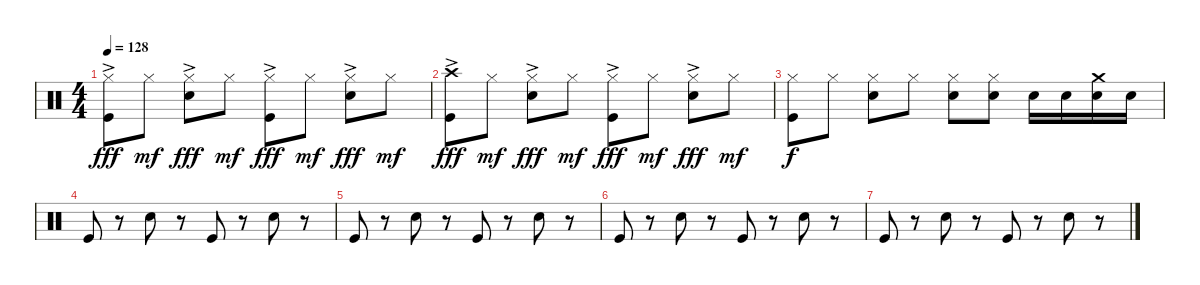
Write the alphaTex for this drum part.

\track "" {instrument percussion}
\staff {score}
\articulation defaults
\ts (4 4)
\tempo 128
\clef neutral
\ks c
("Hi-Hat (closed)"{ac} "Kick (hit)").8{dy fff} "Hi-Hat (closed)".8{dy mf} ("Hi-Hat (closed)"{ac} "Electric Snare (hit)").8{dy fff} "Hi-Hat (closed)".8{dy mf} ("Hi-Hat (closed)"{ac} "Kick (hit)").8{dy fff} "Hi-Hat (closed)".8{dy mf} ("Hi-Hat (closed)"{ac} "Electric Snare (hit)").8{dy fff} "Hi-Hat (closed)".8{dy mf} |
("Crash high (hit)"{ac} "Kick (hit)").8{dy fff} "Hi-Hat (closed)".8{dy mf} ("Hi-Hat (closed)"{ac} "Electric Snare (hit)").8{dy fff} "Hi-Hat (closed)".8{dy mf} ("Hi-Hat (closed)"{ac} "Kick (hit)").8{dy fff} "Hi-Hat (closed)".8{dy mf} ("Hi-Hat (closed)"{ac} "Electric Snare (hit)").8{dy fff} "Hi-Hat (closed)".8{dy mf} |
("Hi-Hat (closed)" "Kick (hit)").8{dy f} "Hi-Hat (closed)".8 ("Hi-Hat (closed)" "Electric Snare (hit)").8 "Hi-Hat (closed)".8 ("Hi-Hat (closed)" "Electric Snare (hit)").8 ("Hi-Hat (closed)" "Electric Snare (hit)").8 "Electric Snare (hit)".16 "Electric Snare (hit)".16 ("Crash medium (hit)" "Electric Snare (hit)").16 "Electric Snare (hit)".16 |
"Kick (hit)".8 r.8 "Snare (hit) 2".8 r.8 "Kick (hit)".8 r.8 "Snare (hit) 2".8 r.8 |
"Kick (hit)".8 r.8 "Snare (hit) 2".8 r.8 "Kick (hit)".8 r.8 "Snare (hit) 2".8 r.8 |
"Kick (hit)".8 r.8 "Snare (hit) 2".8 r.8 "Kick (hit)".8 r.8 "Snare (hit) 2".8 r.8 |
"Kick (hit)".8 r.8 "Snare (hit) 2".8 r.8 "Kick (hit)".8 r.8 "Snare (hit) 2".8 r.8
